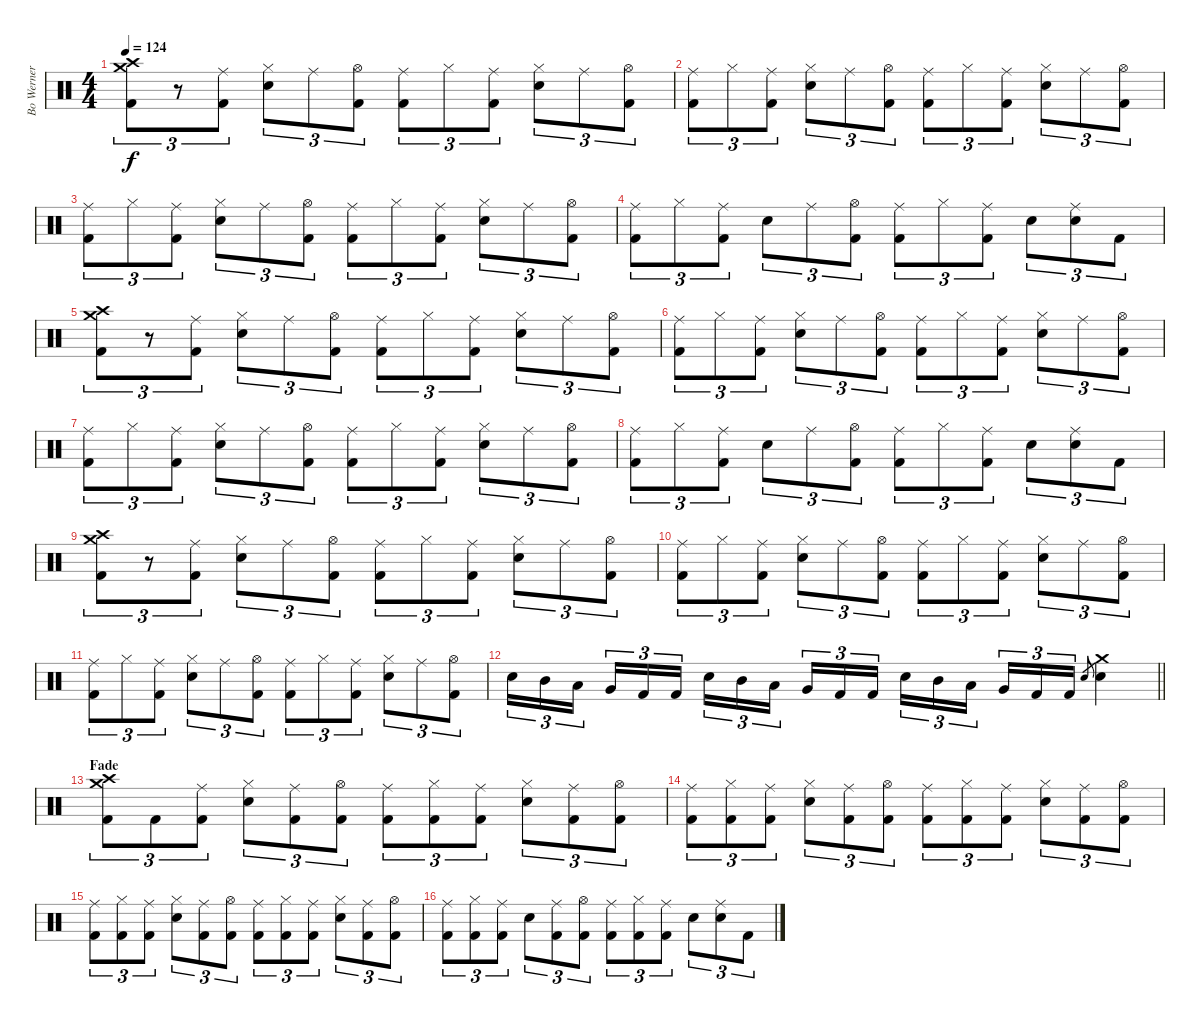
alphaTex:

\track ("Bo Werner " "Bo Werner ") {instrument percussion}
\staff {score}
\articulation defaults
\ts (4 4)
\tempo 124
\clef neutral
\ks c
("Crash medium (hit)" "Crash high (hit)" "Kick (hit) 2").8{tu (3 2) dy f} r.8{tu (3 2)} ("Ride (middle)" "Kick (hit) 2").8{tu (3 2)} ("Hi-Hat (closed)" "Electric Snare (hit)").8{tu (3 2)} "Ride (middle)".8{tu (3 2)} ("Hi-Hat (open)" "Kick (hit) 2").8{tu (3 2)} ("Ride (middle)" "Kick (hit) 2").8{tu (3 2)} "Hi-Hat (closed)".8{tu (3 2)} ("Ride (middle)" "Kick (hit) 2").8{tu (3 2)} ("Hi-Hat (closed)" "Electric Snare (hit)").8{tu (3 2)} "Ride (middle)".8{tu (3 2)} ("Hi-Hat (open)" "Kick (hit) 2").8{tu (3 2)} |
("Ride (middle)" "Kick (hit) 2").8{tu (3 2)} "Hi-Hat (closed)".8{tu (3 2)} ("Ride (middle)" "Kick (hit) 2").8{tu (3 2)} ("Hi-Hat (closed)" "Electric Snare (hit)").8{tu (3 2)} "Ride (middle)".8{tu (3 2)} ("Hi-Hat (open)" "Kick (hit) 2").8{tu (3 2)} ("Ride (middle)" "Kick (hit) 2").8{tu (3 2)} "Hi-Hat (closed)".8{tu (3 2)} ("Ride (middle)" "Kick (hit) 2").8{tu (3 2)} ("Hi-Hat (closed)" "Electric Snare (hit)").8{tu (3 2)} "Ride (middle)".8{tu (3 2)} ("Hi-Hat (open)" "Kick (hit) 2").8{tu (3 2)} |
("Ride (middle)" "Kick (hit) 2").8{tu (3 2)} "Hi-Hat (closed)".8{tu (3 2)} ("Ride (middle)" "Kick (hit) 2").8{tu (3 2)} ("Hi-Hat (closed)" "Electric Snare (hit)").8{tu (3 2)} "Ride (middle)".8{tu (3 2)} ("Hi-Hat (open)" "Kick (hit) 2").8{tu (3 2)} ("Ride (middle)" "Kick (hit) 2").8{tu (3 2)} "Hi-Hat (closed)".8{tu (3 2)} ("Ride (middle)" "Kick (hit) 2").8{tu (3 2)} ("Hi-Hat (closed)" "Electric Snare (hit)").8{tu (3 2)} "Ride (middle)".8{tu (3 2)} ("Hi-Hat (open)" "Kick (hit) 2").8{tu (3 2)} |
("Ride (middle)" "Kick (hit) 2").8{tu (3 2)} "Hi-Hat (closed)".8{tu (3 2)} ("Ride (middle)" "Kick (hit) 2").8{tu (3 2)} "Electric Snare (hit)".8{tu (3 2)} "Ride (middle)".8{tu (3 2)} ("Hi-Hat (open)" "Kick (hit) 2").8{tu (3 2)} ("Ride (middle)" "Kick (hit) 2").8{tu (3 2)} "Hi-Hat (closed)".8{tu (3 2)} ("Ride (middle)" "Kick (hit) 2").8{tu (3 2)} "Electric Snare (hit)".8{tu (3 2)} ("Ride (middle)" "Electric Snare (hit)").8{tu (3 2)} "Kick (hit) 2".8{tu (3 2)} |
("Crash medium (hit)" "Crash high (hit)" "Kick (hit) 2").8{tu (3 2)} r.8{tu (3 2)} ("Ride (middle)" "Kick (hit) 2").8{tu (3 2)} ("Hi-Hat (closed)" "Electric Snare (hit)").8{tu (3 2)} "Ride (middle)".8{tu (3 2)} ("Hi-Hat (open)" "Kick (hit) 2").8{tu (3 2)} ("Ride (middle)" "Kick (hit) 2").8{tu (3 2)} "Hi-Hat (closed)".8{tu (3 2)} ("Ride (middle)" "Kick (hit) 2").8{tu (3 2)} ("Hi-Hat (closed)" "Electric Snare (hit)").8{tu (3 2)} "Ride (middle)".8{tu (3 2)} ("Hi-Hat (open)" "Kick (hit) 2").8{tu (3 2)} |
("Ride (middle)" "Kick (hit) 2").8{tu (3 2)} "Hi-Hat (closed)".8{tu (3 2)} ("Ride (middle)" "Kick (hit) 2").8{tu (3 2)} ("Hi-Hat (closed)" "Electric Snare (hit)").8{tu (3 2)} "Ride (middle)".8{tu (3 2)} ("Hi-Hat (open)" "Kick (hit) 2").8{tu (3 2)} ("Ride (middle)" "Kick (hit) 2").8{tu (3 2)} "Hi-Hat (closed)".8{tu (3 2)} ("Ride (middle)" "Kick (hit) 2").8{tu (3 2)} ("Hi-Hat (closed)" "Electric Snare (hit)").8{tu (3 2)} "Ride (middle)".8{tu (3 2)} ("Hi-Hat (open)" "Kick (hit) 2").8{tu (3 2)} |
("Ride (middle)" "Kick (hit) 2").8{tu (3 2)} "Hi-Hat (closed)".8{tu (3 2)} ("Ride (middle)" "Kick (hit) 2").8{tu (3 2)} ("Hi-Hat (closed)" "Electric Snare (hit)").8{tu (3 2)} "Ride (middle)".8{tu (3 2)} ("Hi-Hat (open)" "Kick (hit) 2").8{tu (3 2)} ("Ride (middle)" "Kick (hit) 2").8{tu (3 2)} "Hi-Hat (closed)".8{tu (3 2)} ("Ride (middle)" "Kick (hit) 2").8{tu (3 2)} ("Hi-Hat (closed)" "Electric Snare (hit)").8{tu (3 2)} "Ride (middle)".8{tu (3 2)} ("Hi-Hat (open)" "Kick (hit) 2").8{tu (3 2)} |
("Ride (middle)" "Kick (hit) 2").8{tu (3 2)} "Hi-Hat (closed)".8{tu (3 2)} ("Ride (middle)" "Kick (hit) 2").8{tu (3 2)} "Electric Snare (hit)".8{tu (3 2)} "Ride (middle)".8{tu (3 2)} ("Hi-Hat (open)" "Kick (hit) 2").8{tu (3 2)} ("Ride (middle)" "Kick (hit) 2").8{tu (3 2)} "Hi-Hat (closed)".8{tu (3 2)} ("Ride (middle)" "Kick (hit) 2").8{tu (3 2)} "Electric Snare (hit)".8{tu (3 2)} ("Ride (middle)" "Electric Snare (hit)").8{tu (3 2)} "Kick (hit) 2".8{tu (3 2)} |
("Crash medium (hit)" "Crash high (hit)" "Kick (hit) 2").8{tu (3 2)} r.8{tu (3 2)} ("Ride (middle)" "Kick (hit) 2").8{tu (3 2)} ("Hi-Hat (closed)" "Electric Snare (hit)").8{tu (3 2)} "Ride (middle)".8{tu (3 2)} ("Hi-Hat (open)" "Kick (hit) 2").8{tu (3 2)} ("Ride (middle)" "Kick (hit) 2").8{tu (3 2)} "Hi-Hat (closed)".8{tu (3 2)} ("Ride (middle)" "Kick (hit) 2").8{tu (3 2)} ("Hi-Hat (closed)" "Electric Snare (hit)").8{tu (3 2)} "Ride (middle)".8{tu (3 2)} ("Hi-Hat (open)" "Kick (hit) 2").8{tu (3 2)} |
("Ride (middle)" "Kick (hit) 2").8{tu (3 2)} "Hi-Hat (closed)".8{tu (3 2)} ("Ride (middle)" "Kick (hit) 2").8{tu (3 2)} ("Hi-Hat (closed)" "Electric Snare (hit)").8{tu (3 2)} "Ride (middle)".8{tu (3 2)} ("Hi-Hat (open)" "Kick (hit) 2").8{tu (3 2)} ("Ride (middle)" "Kick (hit) 2").8{tu (3 2)} "Hi-Hat (closed)".8{tu (3 2)} ("Ride (middle)" "Kick (hit) 2").8{tu (3 2)} ("Hi-Hat (closed)" "Electric Snare (hit)").8{tu (3 2)} "Ride (middle)".8{tu (3 2)} ("Hi-Hat (open)" "Kick (hit) 2").8{tu (3 2)} |
("Ride (middle)" "Kick (hit) 2").8{tu (3 2)} "Hi-Hat (closed)".8{tu (3 2)} ("Ride (middle)" "Kick (hit) 2").8{tu (3 2)} ("Hi-Hat (closed)" "Electric Snare (hit)").8{tu (3 2)} "Ride (middle)".8{tu (3 2)} ("Hi-Hat (open)" "Kick (hit) 2").8{tu (3 2)} ("Ride (middle)" "Kick (hit) 2").8{tu (3 2)} "Hi-Hat (closed)".8{tu (3 2)} ("Ride (middle)" "Kick (hit) 2").8{tu (3 2)} ("Hi-Hat (closed)" "Electric Snare (hit)").8{tu (3 2)} "Ride (middle)".8{tu (3 2)} ("Hi-Hat (open)" "Kick (hit) 2").8{tu (3 2)} |
\barLineRight lightlight "Snare (hit) 2".16{tu (3 2)} "Mid Tom (hit)".16{tu (3 2)} "Low Tom (hit)".16{tu (3 2) beam splitsecondary} "Very Low Tom (hit)".16{tu (3 2)} "Kick (hit) 2".16{tu (3 2)} "Kick (hit) 2".16{tu (3 2)} "Snare (hit) 2".16{tu (3 2)} "Mid Tom (hit)".16{tu (3 2)} "Low Tom (hit)".16{tu (3 2) beam splitsecondary} "Very Low Tom (hit)".16{tu (3 2)} "Kick (hit) 2".16{tu (3 2)} "Kick (hit) 2".16{tu (3 2)} "Snare (hit) 2".16{tu (3 2)} "Mid Tom (hit)".16{tu (3 2)} "Low Tom (hit)".16{tu (3 2) beam splitsecondary} "Very Low Tom (hit)".16{tu (3 2)} "Kick (hit) 2".16{tu (3 2)} "Kick (hit) 2".16{tu (3 2)} "Snare (hit) 2".8{gr}
("Crash medium (hit)" "Snare (hit) 2").4 |
\section ("" "Fade")
("Crash medium (hit)" "Crash high (hit)" "Kick (hit) 2").8{tu (3 2)} "Kick (hit) 2".8{tu (3 2)} ("Ride (middle)" "Kick (hit) 2").8{tu (3 2)} ("Hi-Hat (closed)" "Electric Snare (hit)").8{tu (3 2)} ("Ride (middle)" "Kick (hit) 2").8{tu (3 2)} ("Hi-Hat (open)" "Kick (hit) 2").8{tu (3 2)} ("Ride (middle)" "Kick (hit) 2").8{tu (3 2)} ("Hi-Hat (closed)" "Kick (hit) 2").8{tu (3 2)} ("Ride (middle)" "Kick (hit) 2").8{tu (3 2)} ("Hi-Hat (closed)" "Electric Snare (hit)").8{tu (3 2)} ("Ride (middle)" "Kick (hit) 2").8{tu (3 2)} ("Hi-Hat (open)" "Kick (hit) 2").8{tu (3 2)} |
("Ride (middle)" "Kick (hit) 2").8{tu (3 2)} ("Hi-Hat (closed)" "Kick (hit) 2").8{tu (3 2)} ("Ride (middle)" "Kick (hit) 2").8{tu (3 2)} ("Hi-Hat (closed)" "Electric Snare (hit)").8{tu (3 2)} ("Ride (middle)" "Kick (hit) 2").8{tu (3 2)} ("Hi-Hat (open)" "Kick (hit) 2").8{tu (3 2)} ("Ride (middle)" "Kick (hit) 2").8{tu (3 2)} ("Hi-Hat (closed)" "Kick (hit) 2").8{tu (3 2)} ("Ride (middle)" "Kick (hit) 2").8{tu (3 2)} ("Hi-Hat (closed)" "Electric Snare (hit)").8{tu (3 2)} ("Ride (middle)" "Kick (hit) 2").8{tu (3 2)} ("Hi-Hat (open)" "Kick (hit) 2").8{tu (3 2)} |
("Ride (middle)" "Kick (hit) 2").8{tu (3 2)} ("Hi-Hat (closed)" "Kick (hit) 2").8{tu (3 2)} ("Ride (middle)" "Kick (hit) 2").8{tu (3 2)} ("Hi-Hat (closed)" "Electric Snare (hit)").8{tu (3 2)} ("Ride (middle)" "Kick (hit) 2").8{tu (3 2)} ("Hi-Hat (open)" "Kick (hit) 2").8{tu (3 2)} ("Ride (middle)" "Kick (hit) 2").8{tu (3 2)} ("Hi-Hat (closed)" "Kick (hit) 2").8{tu (3 2)} ("Ride (middle)" "Kick (hit) 2").8{tu (3 2)} ("Hi-Hat (closed)" "Electric Snare (hit)").8{tu (3 2)} ("Ride (middle)" "Kick (hit) 2").8{tu (3 2)} ("Hi-Hat (open)" "Kick (hit) 2").8{tu (3 2)} |
("Ride (middle)" "Kick (hit) 2").8{tu (3 2)} ("Hi-Hat (closed)" "Kick (hit) 2").8{tu (3 2)} ("Ride (middle)" "Kick (hit) 2").8{tu (3 2)} "Electric Snare (hit)".8{tu (3 2)} ("Ride (middle)" "Kick (hit) 2").8{tu (3 2)} ("Hi-Hat (open)" "Kick (hit) 2").8{tu (3 2)} ("Ride (middle)" "Kick (hit) 2").8{tu (3 2)} ("Hi-Hat (closed)" "Kick (hit) 2").8{tu (3 2)} ("Ride (middle)" "Kick (hit) 2").8{tu (3 2)} "Electric Snare (hit)".8{tu (3 2)} ("Ride (middle)" "Electric Snare (hit)").8{tu (3 2)} "Kick (hit) 2".8{tu (3 2)}
